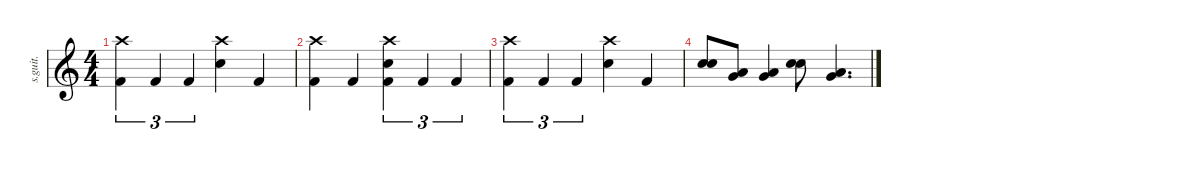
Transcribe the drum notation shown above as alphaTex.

\defaultSystemsLayout 4
\hideDynamics
\bracketExtendMode nobrackets
\track ("Track 4" "s.guit.") {instrument percussion}
\staff {score}
\articulation defaults
\ts (4 4)
\tempo (163 hide)
\clef g2
\ks c
("Crash high (hit)" "Kick (hit) 2").4{tu (3 2) dy f} "Kick (hit) 2".4{tu (3 2)} "Kick (hit) 2".4{tu (3 2)} ("Crash high (hit)" "Snare (hit) 2").4 "Kick (hit) 2".4 |
("Crash high (hit)" "Kick (hit) 2").4 "Kick (hit) 2".4 ("Crash high (hit)" "Snare (hit) 2" "Kick (hit) 2").4{tu (3 2)} "Kick (hit) 2".4{tu (3 2)} "Kick (hit) 2".4{tu (3 2)} |
("Crash high (hit)" "Kick (hit) 2").4{tu (3 2)} "Kick (hit) 2".4{tu (3 2)} "Kick (hit) 2".4{tu (3 2)} ("Crash high (hit)" "Snare (hit) 2").4 "Kick (hit) 2".4 |
("Snare (hit) 2" "Snare (hit) 2").8 ("Low Tom (hit)" "Very Low Tom (hit)").8 ("Low Tom (hit)" "Very Low Tom (hit)").4 ("Snare (hit) 2" "Snare (hit) 2").8 ("Low Tom (hit)" "Very Low Tom (hit)").4{d}
